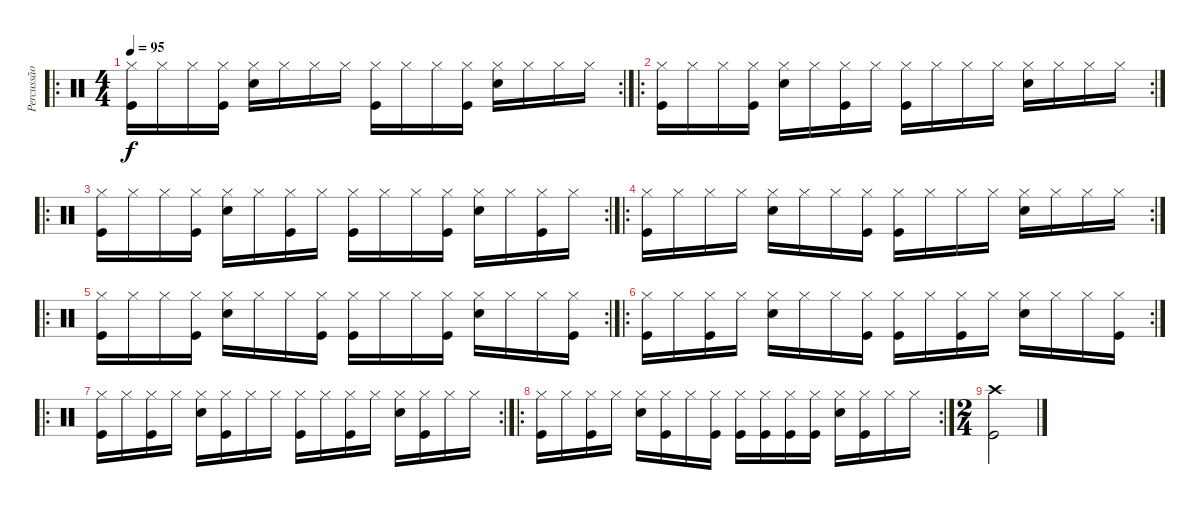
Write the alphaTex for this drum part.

\track ("Percussão" "Percussão") {instrument percussion}
\staff {score}
\articulation defaults
\ro
\rc 2
\ts (4 4)
\tempo 95
\clef neutral
\ks c
("Hi-Hat (closed)" "Kick (hit)").16{dy f} "Hi-Hat (closed)".16 "Hi-Hat (closed)".16 ("Hi-Hat (closed)" "Kick (hit)").16 ("Hi-Hat (closed)" "Snare (hit) 2").16 "Hi-Hat (closed)".16 "Hi-Hat (closed)".16 "Hi-Hat (closed)".16 ("Hi-Hat (closed)" "Kick (hit)").16 "Hi-Hat (closed)".16 "Hi-Hat (closed)".16 ("Hi-Hat (closed)" "Kick (hit)").16 ("Hi-Hat (closed)" "Snare (hit) 2").16 "Hi-Hat (closed)".16 "Hi-Hat (closed)".16 "Hi-Hat (closed)".16 |
\ro
\rc 2
("Hi-Hat (closed)" "Kick (hit)").16 "Hi-Hat (closed)".16 "Hi-Hat (closed)".16 ("Hi-Hat (closed)" "Kick (hit)").16 ("Hi-Hat (closed)" "Snare (hit) 2").16 "Hi-Hat (closed)".16 ("Hi-Hat (closed)" "Kick (hit)").16 "Hi-Hat (closed)".16 ("Hi-Hat (closed)" "Kick (hit)").16 "Hi-Hat (closed)".16 "Hi-Hat (closed)".16 "Hi-Hat (closed)".16 ("Hi-Hat (closed)" "Snare (hit) 2").16 "Hi-Hat (closed)".16 "Hi-Hat (closed)".16 "Hi-Hat (closed)".16 |
\ro
\rc 2
("Hi-Hat (closed)" "Kick (hit)").16 "Hi-Hat (closed)".16 "Hi-Hat (closed)".16 ("Hi-Hat (closed)" "Kick (hit)").16 ("Hi-Hat (closed)" "Snare (hit) 2").16 "Hi-Hat (closed)".16 ("Hi-Hat (closed)" "Kick (hit)").16 "Hi-Hat (closed)".16 ("Hi-Hat (closed)" "Kick (hit)").16 "Hi-Hat (closed)".16 "Hi-Hat (closed)".16 ("Hi-Hat (closed)" "Kick (hit)").16 ("Hi-Hat (closed)" "Snare (hit) 2").16 "Hi-Hat (closed)".16 ("Hi-Hat (closed)" "Kick (hit)").16 "Hi-Hat (closed)".16 |
\ro
\rc 2
("Hi-Hat (closed)" "Kick (hit)").16 "Hi-Hat (closed)".16 "Hi-Hat (closed)".16 "Hi-Hat (closed)".16 ("Hi-Hat (closed)" "Snare (hit) 2").16 "Hi-Hat (closed)".16 "Hi-Hat (closed)".16 ("Hi-Hat (closed)" "Kick (hit)").16 ("Hi-Hat (closed)" "Kick (hit)").16 "Hi-Hat (closed)".16 "Hi-Hat (closed)".16 "Hi-Hat (closed)".16 ("Hi-Hat (closed)" "Snare (hit) 2").16 "Hi-Hat (closed)".16 "Hi-Hat (closed)".16 "Hi-Hat (closed)".16 |
\ro
\rc 2
("Hi-Hat (closed)" "Kick (hit)").16 "Hi-Hat (closed)".16 "Hi-Hat (closed)".16 ("Hi-Hat (closed)" "Kick (hit)").16 ("Hi-Hat (closed)" "Snare (hit) 2").16 "Hi-Hat (closed)".16 "Hi-Hat (closed)".16 ("Hi-Hat (closed)" "Kick (hit)").16 ("Hi-Hat (closed)" "Kick (hit)").16 "Hi-Hat (closed)".16 "Hi-Hat (closed)".16 ("Hi-Hat (closed)" "Kick (hit)").16 ("Hi-Hat (closed)" "Snare (hit) 2").16 "Hi-Hat (closed)".16 "Hi-Hat (closed)".16 ("Hi-Hat (closed)" "Kick (hit)").16 |
\ro
\rc 2
("Hi-Hat (closed)" "Kick (hit)").16 "Hi-Hat (closed)".16 ("Hi-Hat (closed)" "Kick (hit)").16 "Hi-Hat (closed)".16 ("Hi-Hat (closed)" "Snare (hit) 2").16 "Hi-Hat (closed)".16 "Hi-Hat (closed)".16 ("Hi-Hat (closed)" "Kick (hit)").16 ("Hi-Hat (closed)" "Kick (hit)").16 "Hi-Hat (closed)".16 ("Hi-Hat (closed)" "Kick (hit)").16 "Hi-Hat (closed)".16 ("Hi-Hat (closed)" "Snare (hit) 2").16 "Hi-Hat (closed)".16 "Hi-Hat (closed)".16 ("Hi-Hat (closed)" "Kick (hit)").16 |
\ro
\rc 2
("Hi-Hat (closed)" "Kick (hit)").16 "Hi-Hat (closed)".16 ("Hi-Hat (closed)" "Kick (hit)").16 "Hi-Hat (closed)".16 ("Hi-Hat (closed)" "Snare (hit) 2").16 ("Hi-Hat (closed)" "Kick (hit)").16 "Hi-Hat (closed)".16 "Hi-Hat (closed)".16 ("Hi-Hat (closed)" "Kick (hit)").16 "Hi-Hat (closed)".16 ("Hi-Hat (closed)" "Kick (hit)").16 "Hi-Hat (closed)".16 ("Hi-Hat (closed)" "Snare (hit) 2").16 ("Hi-Hat (closed)" "Kick (hit)").16 "Hi-Hat (closed)".16 "Hi-Hat (closed)".16 |
\ro
\rc 2
("Hi-Hat (closed)" "Kick (hit)").16 "Hi-Hat (closed)".16 ("Hi-Hat (closed)" "Kick (hit)").16 "Hi-Hat (closed)".16 ("Hi-Hat (closed)" "Snare (hit) 2").16 ("Hi-Hat (closed)" "Kick (hit)").16 "Hi-Hat (closed)".16 ("Hi-Hat (closed)" "Kick (hit)").16 ("Hi-Hat (closed)" "Kick (hit)").16 ("Hi-Hat (closed)" "Kick (hit)").16 ("Hi-Hat (closed)" "Kick (hit)").16 ("Hi-Hat (closed)" "Kick (hit)").16 ("Hi-Hat (closed)" "Snare (hit) 2").16 ("Hi-Hat (closed)" "Kick (hit)").16 "Hi-Hat (closed)".16 "Hi-Hat (closed)".16 |
\ts (2 4)
("Crash high (hit)" "Kick (hit)").2
